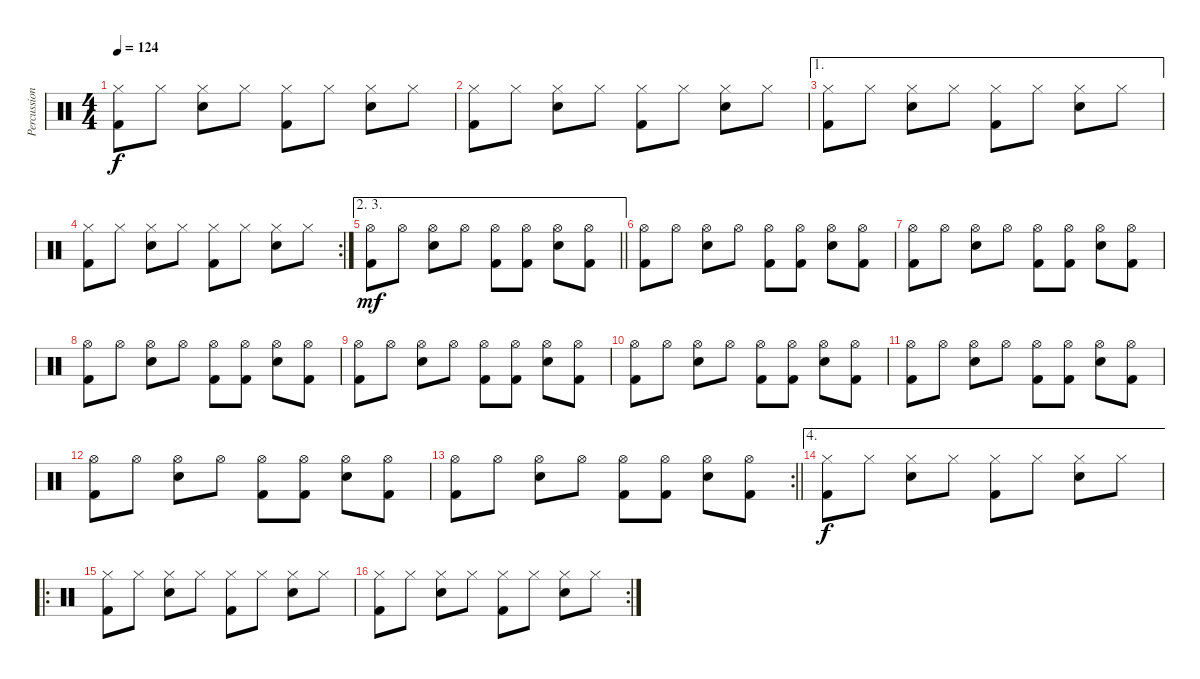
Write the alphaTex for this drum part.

\track ("Percussion" "Percussion") {instrument percussion}
\staff {score}
\articulation defaults
\ts (4 4)
\tempo 124
\clef neutral
\ks c
("Hi-Hat (closed)" "Kick (hit) 2").8{dy f} "Hi-Hat (closed)".8 ("Hi-Hat (closed)" "Snare (hit) 2").8 "Hi-Hat (closed)".8 ("Hi-Hat (closed)" "Kick (hit) 2").8 "Hi-Hat (closed)".8 ("Hi-Hat (closed)" "Snare (hit) 2").8 "Hi-Hat (closed)".8 |
("Hi-Hat (closed)" "Kick (hit) 2").8 "Hi-Hat (closed)".8 ("Hi-Hat (closed)" "Snare (hit) 2").8 "Hi-Hat (closed)".8 ("Hi-Hat (closed)" "Kick (hit) 2").8 "Hi-Hat (closed)".8 ("Hi-Hat (closed)" "Snare (hit) 2").8 "Hi-Hat (closed)".8 |
\ae 1
("Hi-Hat (closed)" "Kick (hit) 2").8 "Hi-Hat (closed)".8 ("Hi-Hat (closed)" "Snare (hit) 2").8 "Hi-Hat (closed)".8 ("Hi-Hat (closed)" "Kick (hit) 2").8 "Hi-Hat (closed)".8 ("Hi-Hat (closed)" "Snare (hit) 2").8 "Hi-Hat (closed)".8 |
\rc 2
("Hi-Hat (closed)" "Kick (hit) 2").8 "Hi-Hat (closed)".8 ("Hi-Hat (closed)" "Snare (hit) 2").8 "Hi-Hat (closed)".8 ("Hi-Hat (closed)" "Kick (hit) 2").8 "Hi-Hat (closed)".8 ("Hi-Hat (closed)" "Snare (hit) 2").8 "Hi-Hat (closed)".8 |
\ae (2 3)
\barLineRight lightlight
("Hi-Hat (open)" "Kick (hit) 2").8{dy mf} "Hi-Hat (open)".8 ("Hi-Hat (open)" "Snare (hit) 2").8 "Hi-Hat (open)".8 ("Hi-Hat (open)" "Kick (hit) 2").8 ("Hi-Hat (open)" "Kick (hit) 2").8 ("Hi-Hat (open)" "Snare (hit) 2").8 ("Hi-Hat (open)" "Kick (hit) 2").8 |
("Hi-Hat (open)" "Kick (hit) 2").8 "Hi-Hat (open)".8 ("Hi-Hat (open)" "Snare (hit) 2").8 "Hi-Hat (open)".8 ("Hi-Hat (open)" "Kick (hit) 2").8 ("Hi-Hat (open)" "Kick (hit) 2").8 ("Hi-Hat (open)" "Snare (hit) 2").8 ("Hi-Hat (open)" "Kick (hit) 2").8 |
("Hi-Hat (open)" "Kick (hit) 2").8 "Hi-Hat (open)".8 ("Hi-Hat (open)" "Snare (hit) 2").8 "Hi-Hat (open)".8 ("Hi-Hat (open)" "Kick (hit) 2").8 ("Hi-Hat (open)" "Kick (hit) 2").8 ("Hi-Hat (open)" "Snare (hit) 2").8 ("Hi-Hat (open)" "Kick (hit) 2").8 |
("Hi-Hat (open)" "Kick (hit) 2").8 "Hi-Hat (open)".8 ("Hi-Hat (open)" "Snare (hit) 2").8 "Hi-Hat (open)".8 ("Hi-Hat (open)" "Kick (hit) 2").8 ("Hi-Hat (open)" "Kick (hit) 2").8 ("Hi-Hat (open)" "Snare (hit) 2").8 ("Hi-Hat (open)" "Kick (hit) 2").8 |
("Hi-Hat (open)" "Kick (hit) 2").8 "Hi-Hat (open)".8 ("Hi-Hat (open)" "Snare (hit) 2").8 "Hi-Hat (open)".8 ("Hi-Hat (open)" "Kick (hit) 2").8 ("Hi-Hat (open)" "Kick (hit) 2").8 ("Hi-Hat (open)" "Snare (hit) 2").8 ("Hi-Hat (open)" "Kick (hit) 2").8 |
("Hi-Hat (open)" "Kick (hit) 2").8 "Hi-Hat (open)".8 ("Hi-Hat (open)" "Snare (hit) 2").8 "Hi-Hat (open)".8 ("Hi-Hat (open)" "Kick (hit) 2").8 ("Hi-Hat (open)" "Kick (hit) 2").8 ("Hi-Hat (open)" "Snare (hit) 2").8 ("Hi-Hat (open)" "Kick (hit) 2").8 |
("Hi-Hat (open)" "Kick (hit) 2").8 "Hi-Hat (open)".8 ("Hi-Hat (open)" "Snare (hit) 2").8 "Hi-Hat (open)".8 ("Hi-Hat (open)" "Kick (hit) 2").8 ("Hi-Hat (open)" "Kick (hit) 2").8 ("Hi-Hat (open)" "Snare (hit) 2").8 ("Hi-Hat (open)" "Kick (hit) 2").8 |
("Hi-Hat (open)" "Kick (hit) 2").8 "Hi-Hat (open)".8 ("Hi-Hat (open)" "Snare (hit) 2").8 "Hi-Hat (open)".8 ("Hi-Hat (open)" "Kick (hit) 2").8 ("Hi-Hat (open)" "Kick (hit) 2").8 ("Hi-Hat (open)" "Snare (hit) 2").8 ("Hi-Hat (open)" "Kick (hit) 2").8 |
\rc 2
\barLineRight lightlight
("Hi-Hat (open)" "Kick (hit) 2").8 "Hi-Hat (open)".8 ("Hi-Hat (open)" "Snare (hit) 2").8 "Hi-Hat (open)".8 ("Hi-Hat (open)" "Kick (hit) 2").8 ("Hi-Hat (open)" "Kick (hit) 2").8 ("Hi-Hat (open)" "Snare (hit) 2").8 ("Hi-Hat (open)" "Kick (hit) 2").8 |
\ae 4
("Hi-Hat (closed)" "Kick (hit) 2").8{dy f} "Hi-Hat (closed)".8 ("Hi-Hat (closed)" "Snare (hit) 2").8 "Hi-Hat (closed)".8 ("Hi-Hat (closed)" "Kick (hit) 2").8 "Hi-Hat (closed)".8 ("Hi-Hat (closed)" "Snare (hit) 2").8 "Hi-Hat (closed)".8 |
\ro
("Hi-Hat (closed)" "Kick (hit) 2").8 "Hi-Hat (closed)".8 ("Hi-Hat (closed)" "Snare (hit) 2").8 "Hi-Hat (closed)".8 ("Hi-Hat (closed)" "Kick (hit) 2").8 "Hi-Hat (closed)".8 ("Hi-Hat (closed)" "Snare (hit) 2").8 "Hi-Hat (closed)".8 |
\rc 2
("Hi-Hat (closed)" "Kick (hit) 2").8 "Hi-Hat (closed)".8 ("Hi-Hat (closed)" "Snare (hit) 2").8 "Hi-Hat (closed)".8 ("Hi-Hat (closed)" "Kick (hit) 2").8 "Hi-Hat (closed)".8 ("Hi-Hat (closed)" "Snare (hit) 2").8 "Hi-Hat (closed)".8
